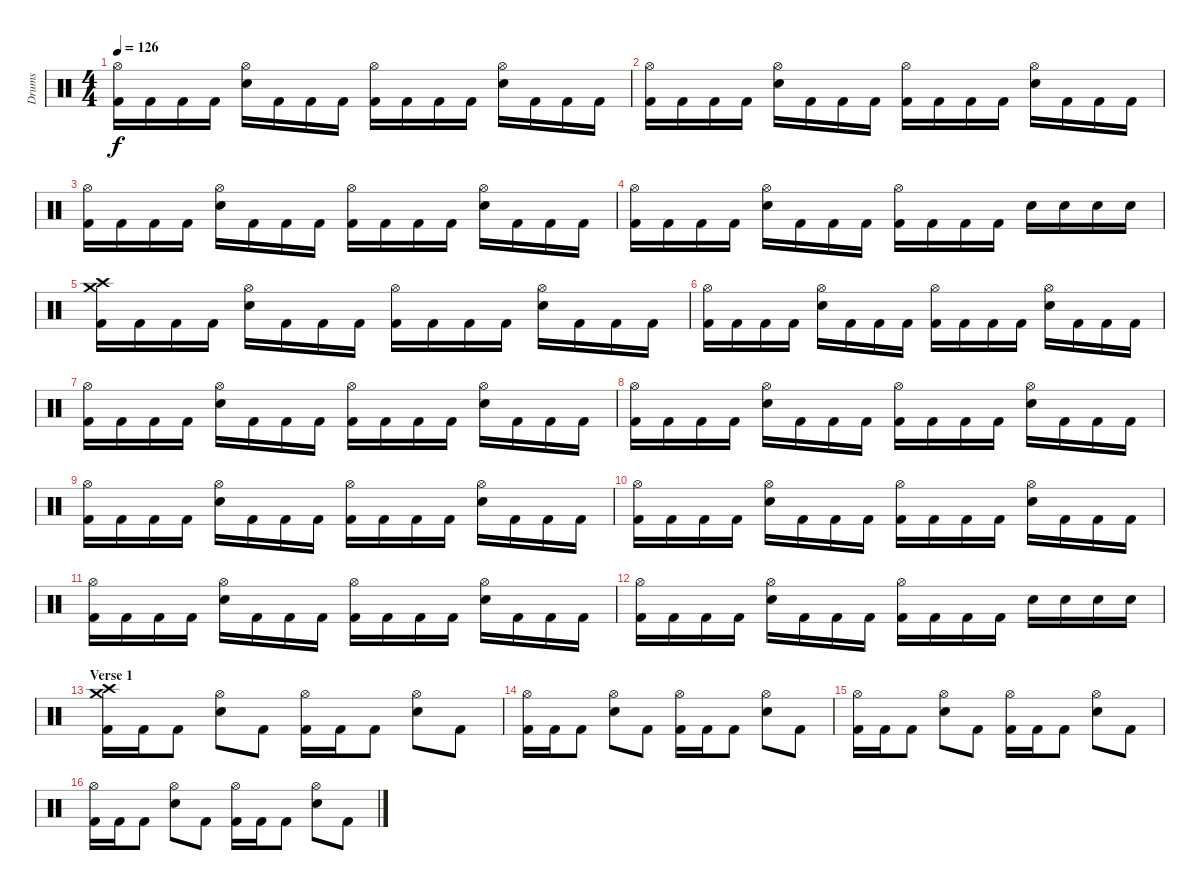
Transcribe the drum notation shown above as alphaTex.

\track ("Drums" "Drums") {instrument percussion}
\staff {score}
\articulation defaults
\ts (4 4)
\tempo 126
\clef neutral
\ks c
("Hi-Hat (open)" "Kick (hit) 2").16{dy f} "Kick (hit) 2".16 "Kick (hit) 2".16 "Kick (hit) 2".16 ("Hi-Hat (open)" "Electric Snare (hit)").16 "Kick (hit) 2".16 "Kick (hit) 2".16 "Kick (hit) 2".16 ("Hi-Hat (open)" "Kick (hit) 2").16 "Kick (hit) 2".16 "Kick (hit) 2".16 "Kick (hit) 2".16 ("Hi-Hat (open)" "Electric Snare (hit)").16 "Kick (hit) 2".16 "Kick (hit) 2".16 "Kick (hit) 2".16 |
("Hi-Hat (open)" "Kick (hit) 2").16 "Kick (hit) 2".16 "Kick (hit) 2".16 "Kick (hit) 2".16 ("Hi-Hat (open)" "Electric Snare (hit)").16 "Kick (hit) 2".16 "Kick (hit) 2".16 "Kick (hit) 2".16 ("Hi-Hat (open)" "Kick (hit) 2").16 "Kick (hit) 2".16 "Kick (hit) 2".16 "Kick (hit) 2".16 ("Hi-Hat (open)" "Electric Snare (hit)").16 "Kick (hit) 2".16 "Kick (hit) 2".16 "Kick (hit) 2".16 |
("Hi-Hat (open)" "Kick (hit) 2").16 "Kick (hit) 2".16 "Kick (hit) 2".16 "Kick (hit) 2".16 ("Hi-Hat (open)" "Electric Snare (hit)").16 "Kick (hit) 2".16 "Kick (hit) 2".16 "Kick (hit) 2".16 ("Hi-Hat (open)" "Kick (hit) 2").16 "Kick (hit) 2".16 "Kick (hit) 2".16 "Kick (hit) 2".16 ("Hi-Hat (open)" "Electric Snare (hit)").16 "Kick (hit) 2".16 "Kick (hit) 2".16 "Kick (hit) 2".16 |
("Hi-Hat (open)" "Kick (hit) 2").16 "Kick (hit) 2".16 "Kick (hit) 2".16 "Kick (hit) 2".16 ("Hi-Hat (open)" "Electric Snare (hit)").16 "Kick (hit) 2".16 "Kick (hit) 2".16 "Kick (hit) 2".16 ("Hi-Hat (open)" "Kick (hit) 2").16 "Kick (hit) 2".16 "Kick (hit) 2".16 "Kick (hit) 2".16 "Electric Snare (hit)".16 "Electric Snare (hit)".16 "Electric Snare (hit)".16 "Electric Snare (hit)".16 |
("Crash high (hit)" "Crash medium (hit)" "Kick (hit) 2").16 "Kick (hit) 2".16 "Kick (hit) 2".16 "Kick (hit) 2".16 ("Hi-Hat (open)" "Electric Snare (hit)").16 "Kick (hit) 2".16 "Kick (hit) 2".16 "Kick (hit) 2".16 ("Hi-Hat (open)" "Kick (hit) 2").16 "Kick (hit) 2".16 "Kick (hit) 2".16 "Kick (hit) 2".16 ("Hi-Hat (open)" "Electric Snare (hit)").16 "Kick (hit) 2".16 "Kick (hit) 2".16 "Kick (hit) 2".16 |
("Hi-Hat (open)" "Kick (hit) 2").16 "Kick (hit) 2".16 "Kick (hit) 2".16 "Kick (hit) 2".16 ("Hi-Hat (open)" "Electric Snare (hit)").16 "Kick (hit) 2".16 "Kick (hit) 2".16 "Kick (hit) 2".16 ("Hi-Hat (open)" "Kick (hit) 2").16 "Kick (hit) 2".16 "Kick (hit) 2".16 "Kick (hit) 2".16 ("Hi-Hat (open)" "Electric Snare (hit)").16 "Kick (hit) 2".16 "Kick (hit) 2".16 "Kick (hit) 2".16 |
("Hi-Hat (open)" "Kick (hit) 2").16 "Kick (hit) 2".16 "Kick (hit) 2".16 "Kick (hit) 2".16 ("Hi-Hat (open)" "Electric Snare (hit)").16 "Kick (hit) 2".16 "Kick (hit) 2".16 "Kick (hit) 2".16 ("Hi-Hat (open)" "Kick (hit) 2").16 "Kick (hit) 2".16 "Kick (hit) 2".16 "Kick (hit) 2".16 ("Hi-Hat (open)" "Electric Snare (hit)").16 "Kick (hit) 2".16 "Kick (hit) 2".16 "Kick (hit) 2".16 |
("Hi-Hat (open)" "Kick (hit) 2").16 "Kick (hit) 2".16 "Kick (hit) 2".16 "Kick (hit) 2".16 ("Hi-Hat (open)" "Electric Snare (hit)").16 "Kick (hit) 2".16 "Kick (hit) 2".16 "Kick (hit) 2".16 ("Hi-Hat (open)" "Kick (hit) 2").16 "Kick (hit) 2".16 "Kick (hit) 2".16 "Kick (hit) 2".16 ("Hi-Hat (open)" "Electric Snare (hit)").16 "Kick (hit) 2".16 "Kick (hit) 2".16 "Kick (hit) 2".16 |
("Hi-Hat (open)" "Kick (hit) 2").16 "Kick (hit) 2".16 "Kick (hit) 2".16 "Kick (hit) 2".16 ("Hi-Hat (open)" "Electric Snare (hit)").16 "Kick (hit) 2".16 "Kick (hit) 2".16 "Kick (hit) 2".16 ("Hi-Hat (open)" "Kick (hit) 2").16 "Kick (hit) 2".16 "Kick (hit) 2".16 "Kick (hit) 2".16 ("Hi-Hat (open)" "Electric Snare (hit)").16 "Kick (hit) 2".16 "Kick (hit) 2".16 "Kick (hit) 2".16 |
("Hi-Hat (open)" "Kick (hit) 2").16 "Kick (hit) 2".16 "Kick (hit) 2".16 "Kick (hit) 2".16 ("Hi-Hat (open)" "Electric Snare (hit)").16 "Kick (hit) 2".16 "Kick (hit) 2".16 "Kick (hit) 2".16 ("Hi-Hat (open)" "Kick (hit) 2").16 "Kick (hit) 2".16 "Kick (hit) 2".16 "Kick (hit) 2".16 ("Hi-Hat (open)" "Electric Snare (hit)").16 "Kick (hit) 2".16 "Kick (hit) 2".16 "Kick (hit) 2".16 |
("Hi-Hat (open)" "Kick (hit) 2").16 "Kick (hit) 2".16 "Kick (hit) 2".16 "Kick (hit) 2".16 ("Hi-Hat (open)" "Electric Snare (hit)").16 "Kick (hit) 2".16 "Kick (hit) 2".16 "Kick (hit) 2".16 ("Hi-Hat (open)" "Kick (hit) 2").16 "Kick (hit) 2".16 "Kick (hit) 2".16 "Kick (hit) 2".16 ("Hi-Hat (open)" "Electric Snare (hit)").16 "Kick (hit) 2".16 "Kick (hit) 2".16 "Kick (hit) 2".16 |
("Hi-Hat (open)" "Kick (hit) 2").16 "Kick (hit) 2".16 "Kick (hit) 2".16 "Kick (hit) 2".16 ("Hi-Hat (open)" "Electric Snare (hit)").16 "Kick (hit) 2".16 "Kick (hit) 2".16 "Kick (hit) 2".16 ("Hi-Hat (open)" "Kick (hit) 2").16 "Kick (hit) 2".16 "Kick (hit) 2".16 "Kick (hit) 2".16 "Electric Snare (hit)".16 "Electric Snare (hit)".16 "Electric Snare (hit)".16 "Electric Snare (hit)".16 |
\section ("" "Verse 1")
("Crash high (hit)" "Crash medium (hit)" "Kick (hit) 2").16 "Kick (hit) 2".16 "Kick (hit) 2".8 ("Hi-Hat (open)" "Electric Snare (hit)").8 "Kick (hit) 2".8 ("Hi-Hat (open)" "Kick (hit) 2").16 "Kick (hit) 2".16 "Kick (hit) 2".8 ("Hi-Hat (open)" "Electric Snare (hit)").8 "Kick (hit) 2".8 |
("Hi-Hat (open)" "Kick (hit) 2").16 "Kick (hit) 2".16 "Kick (hit) 2".8 ("Hi-Hat (open)" "Electric Snare (hit)").8 "Kick (hit) 2".8 ("Hi-Hat (open)" "Kick (hit) 2").16 "Kick (hit) 2".16 "Kick (hit) 2".8 ("Hi-Hat (open)" "Electric Snare (hit)").8 "Kick (hit) 2".8 |
("Hi-Hat (open)" "Kick (hit) 2").16 "Kick (hit) 2".16 "Kick (hit) 2".8 ("Hi-Hat (open)" "Electric Snare (hit)").8 "Kick (hit) 2".8 ("Hi-Hat (open)" "Kick (hit) 2").16 "Kick (hit) 2".16 "Kick (hit) 2".8 ("Hi-Hat (open)" "Electric Snare (hit)").8 "Kick (hit) 2".8 |
("Hi-Hat (open)" "Kick (hit) 2").16 "Kick (hit) 2".16 "Kick (hit) 2".8 ("Hi-Hat (open)" "Electric Snare (hit)").8 "Kick (hit) 2".8 ("Hi-Hat (open)" "Kick (hit) 2").16 "Kick (hit) 2".16 "Kick (hit) 2".8 ("Hi-Hat (open)" "Electric Snare (hit)").8 "Kick (hit) 2".8
